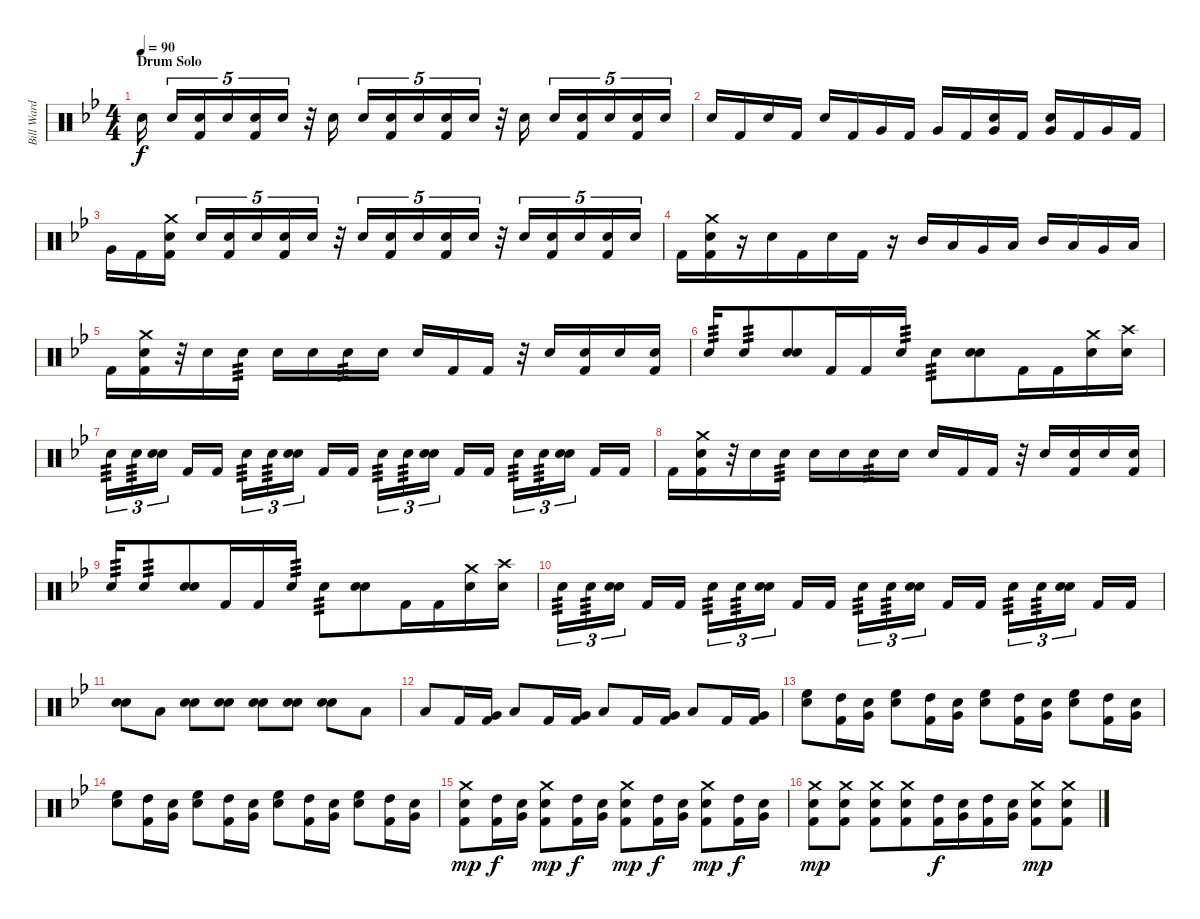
\track ("Bill Ward" "Bill Ward") {instrument percussion}
\staff {score}
\articulation defaults
\ts (4 4)
\section ("" "Drum Solo")
\tempo 90
\clef neutral
\ks bb "Electric Snare (hit)".16{dy f beam splitsecondary} "Electric Snare (hit)".16{tu (5 4)}
("Electric Snare (hit)" "Kick (hit) 2").16{tu (5 4)} "Electric Snare (hit)".16{tu (5 4)} ("Electric Snare (hit)" "Kick (hit) 2").16{tu (5 4) beam merge} "Electric Snare (hit)".16{tu (5 4)} r.32 "Electric Snare (hit)".16{beam splitsecondary} "Electric Snare (hit)".16{tu (5 4)} ("Electric Snare (hit)" "Kick (hit) 2").16{tu (5 4) beam merge} "Electric Snare (hit)".16{tu (5 4)} ("Electric Snare (hit)" "Kick (hit) 2").16{tu (5 4)} "Electric Snare (hit)".16{tu (5 4)} r.32 "Electric Snare (hit)".16 "Electric Snare (hit)".16{tu (5 4)} ("Electric Snare (hit)" "Kick (hit) 2").16{tu (5 4) beam merge} "Electric Snare (hit)".16{tu (5 4)} ("Electric Snare (hit)" "Kick (hit) 2").16{tu (5 4)} "Electric Snare (hit)".16{tu (5 4)} |
"Snare (hit) 2".16 "Kick (hit) 2".16 "Snare (hit) 2".16 "Kick (hit) 2".16 "Snare (hit) 2".16 "Kick (hit) 2".16 "Very Low Tom (hit)".16 "Kick (hit) 2".16 "Very Low Tom (hit)".16 "Kick (hit) 2".16 ("Electric Snare (hit)" "Very Low Tom (hit)").16 "Kick (hit) 2".16 ("Electric Snare (hit)" "Very Low Tom (hit)").16 "Kick (hit) 2".16 "Very Low Tom (hit)".16 "Kick (hit) 2".16 |
"Very Low Tom (hit)".16 "Kick (hit) 2".16 ("Crash medium (hit)" "Snare (hit) 2" "Kick (hit) 2").16{beam splitsecondary} "Snare (hit) 2".16{tu (5 4)} ("Snare (hit) 2" "Kick (hit) 2").16{tu (5 4)} "Snare (hit) 2".16{tu (5 4)} ("Snare (hit) 2" "Kick (hit) 2").16{tu (5 4)} "Snare (hit) 2".16{tu (5 4)} r.32 "Snare (hit) 2".16{tu (5 4)} ("Snare (hit) 2" "Kick (hit) 2").16{tu (5 4)} "Snare (hit) 2".16{tu (5 4)} ("Snare (hit) 2" "Kick (hit) 2").16{tu (5 4)} "Snare (hit) 2".16{tu (5 4)} r.32 "Snare (hit) 2".16{tu (5 4)} ("Snare (hit) 2" "Kick (hit) 2").16{tu (5 4)} "Snare (hit) 2".16{tu (5 4)} ("Snare (hit) 2" "Kick (hit) 2").16{tu (5 4)} "Snare (hit) 2".16{tu (5 4)} |
"Kick (hit) 2".16 ("Crash medium (hit)" "Snare (hit) 2" "Kick (hit) 2").16 r.16 "Electric Snare (hit)".16{beam merge} "Kick (hit) 2".16 "Electric Snare (hit)".16{beam merge} "Kick (hit) 2".16 r.16 "Mid Tom (hit)".16 "Low Tom (hit)".16 "Very Low Tom (hit)".16 "Low Floor Tom (hit)".16 "Mid Tom (hit)".16 "Low Tom (hit)".16 "Very Low Tom (hit)".16 "Low Floor Tom (hit)".16 |
"Kick (hit) 2".16 ("Crash medium (hit)" "Snare (hit) 2" "Kick (hit) 2").16 r.32 "Electric Snare (hit)".16 "Electric Snare (hit)".16{tp 3} "Snare (hit) 2".16 "Electric Snare (hit)".16 "Electric Snare (hit)".16{tp 3} "Snare (hit) 2".16 "Electric Snare (hit)".16 "Kick (hit) 2".16 "Kick (hit) 2".16 r.32 "Electric Snare (hit)".16 ("Electric Snare (hit)" "Kick (hit) 2").16 "Electric Snare (hit)".16 ("Electric Snare (hit)" "Kick (hit) 2").16 |
"Snare (hit) 2".16{tp 3} "Snare (hit) 2".8{tp 3} ("Electric Snare (hit)" "Snare (hit) 2").8{beam merge} "Kick (hit) 2".16 "Kick (hit) 2".16 "Snare (hit) 2".16{tp 3} "Snare (hit) 2".8{tp 3} ("Electric Snare (hit)" "Snare (hit) 2").8{beam merge} "Kick (hit) 2".16 "Kick (hit) 2".16 ("Crash medium (hit)" "Snare (hit) 2").16 ("Crash high (hit)" "Snare (hit) 2").16 |
"Snare (hit) 2".16{tu (3 2) tp 3} "Snare (hit) 2".16{tu (3 2) tp 3} ("Electric Snare (hit)" "Snare (hit) 2").16{tu (3 2) beam splitsecondary} "Kick (hit) 2".16 "Kick (hit) 2".16 "Snare (hit) 2".16{tu (3 2) tp 3} "Snare (hit) 2".16{tu (3 2) tp 3} ("Electric Snare (hit)" "Snare (hit) 2").16{tu (3 2) beam splitsecondary} "Kick (hit) 2".16 "Kick (hit) 2".16 "Snare (hit) 2".16{tu (3 2) tp 3} "Snare (hit) 2".16{tu (3 2) tp 3} ("Electric Snare (hit)" "Snare (hit) 2").16{tu (3 2) beam splitsecondary} "Kick (hit) 2".16 "Kick (hit) 2".16 "Snare (hit) 2".16{tu (3 2) tp 3} "Snare (hit) 2".16{tu (3 2) tp 3} ("Electric Snare (hit)" "Snare (hit) 2").16{tu (3 2) beam splitsecondary} "Kick (hit) 2".16 "Kick (hit) 2".16 |
"Kick (hit) 2".16 ("Crash medium (hit)" "Snare (hit) 2" "Kick (hit) 2").16 r.32 "Electric Snare (hit)".16 "Electric Snare (hit)".16{tp 3} "Snare (hit) 2".16 "Electric Snare (hit)".16 "Electric Snare (hit)".16{tp 3} "Snare (hit) 2".16 "Electric Snare (hit)".16 "Kick (hit) 2".16 "Kick (hit) 2".16 r.32 "Electric Snare (hit)".16 ("Electric Snare (hit)" "Kick (hit) 2").16 "Electric Snare (hit)".16 ("Electric Snare (hit)" "Kick (hit) 2").16 |
"Snare (hit) 2".16{tp 3} "Snare (hit) 2".8{tp 3} ("Electric Snare (hit)" "Snare (hit) 2").8{beam merge} "Kick (hit) 2".16 "Kick (hit) 2".16 "Snare (hit) 2".16{tp 3} "Snare (hit) 2".8{tp 3} ("Electric Snare (hit)" "Snare (hit) 2").8{beam merge} "Kick (hit) 2".16 "Kick (hit) 2".16 ("Crash medium (hit)" "Snare (hit) 2").16 ("Crash high (hit)" "Snare (hit) 2").16 |
"Snare (hit) 2".16{tu (3 2) tp 3} "Snare (hit) 2".16{tu (3 2) tp 3} ("Electric Snare (hit)" "Snare (hit) 2").16{tu (3 2) beam splitsecondary} "Kick (hit) 2".16 "Kick (hit) 2".16 "Snare (hit) 2".16{tu (3 2) tp 3} "Snare (hit) 2".16{tu (3 2) tp 3} ("Electric Snare (hit)" "Snare (hit) 2").16{tu (3 2) beam splitsecondary} "Kick (hit) 2".16 "Kick (hit) 2".16 "Snare (hit) 2".16{tu (3 2) tp 3} "Snare (hit) 2".16{tu (3 2) tp 3} ("Electric Snare (hit)" "Snare (hit) 2").16{tu (3 2) beam splitsecondary} "Kick (hit) 2".16 "Kick (hit) 2".16 "Snare (hit) 2".16{tu (3 2) tp 3} "Snare (hit) 2".16{tu (3 2) tp 3} ("Electric Snare (hit)" "Snare (hit) 2").16{tu (3 2) beam splitsecondary} "Kick (hit) 2".16 "Kick (hit) 2".16 |
("Electric Snare (hit)" "Snare (hit) 2").8 "Low Tom (hit)".8 ("Electric Snare (hit)" "Snare (hit) 2").8 ("Electric Snare (hit)" "Snare (hit) 2").8 ("Electric Snare (hit)" "Snare (hit) 2").8 ("Electric Snare (hit)" "Snare (hit) 2").8 ("Electric Snare (hit)" "Snare (hit) 2").8 "Low Tom (hit)".8 |
"Low Tom (hit)".8{beam merge} "Kick (hit) 2".16 ("Very Low Tom (hit)" "Kick (hit) 2").16 "Low Tom (hit)".8{beam merge} "Kick (hit) 2".16 ("Very Low Tom (hit)" "Kick (hit) 2").16 "Low Tom (hit)".8{beam merge} "Kick (hit) 2".16 ("Very Low Tom (hit)" "Kick (hit) 2").16 "Low Tom (hit)".8{beam merge} "Kick (hit) 2".16 ("Very Low Tom (hit)" "Kick (hit) 2").16 |
("High Floor Tom (hit)" "Electric Snare (hit)").8{beam merge} ("High Tom (hit)" "Kick (hit) 2").16 ("Very Low Tom (hit)" "Electric Snare (hit)").16 ("High Floor Tom (hit)" "Electric Snare (hit)").8{beam merge} ("High Tom (hit)" "Kick (hit) 2").16 ("Very Low Tom (hit)" "Electric Snare (hit)").16 ("High Floor Tom (hit)" "Electric Snare (hit)").8{beam merge} ("High Tom (hit)" "Kick (hit) 2").16 ("Very Low Tom (hit)" "Electric Snare (hit)").16 ("High Floor Tom (hit)" "Electric Snare (hit)").8{beam merge} ("High Tom (hit)" "Kick (hit) 2").16 ("Very Low Tom (hit)" "Electric Snare (hit)").16 |
("High Floor Tom (hit)" "Electric Snare (hit)").8{beam merge} ("High Tom (hit)" "Kick (hit) 2").16 ("Very Low Tom (hit)" "Electric Snare (hit)").16 ("High Floor Tom (hit)" "Electric Snare (hit)").8{beam merge} ("High Tom (hit)" "Kick (hit) 2").16 ("Very Low Tom (hit)" "Electric Snare (hit)").16 ("High Floor Tom (hit)" "Electric Snare (hit)").8{beam merge} ("High Tom (hit)" "Kick (hit) 2").16 ("Very Low Tom (hit)" "Electric Snare (hit)").16 ("High Floor Tom (hit)" "Electric Snare (hit)").8{beam merge} ("High Tom (hit)" "Kick (hit) 2").16 ("Very Low Tom (hit)" "Electric Snare (hit)").16 |
("Crash medium (hit)" "Electric Snare (hit)" "Kick (hit) 2").8{dy mp beam merge} ("High Tom (hit)" "Kick (hit) 2").16{dy f} ("Very Low Tom (hit)" "Electric Snare (hit)").16 ("Crash medium (hit)" "Electric Snare (hit)" "Kick (hit) 2").8{dy mp beam merge} ("High Tom (hit)" "Kick (hit) 2").16{dy f} ("Very Low Tom (hit)" "Electric Snare (hit)").16 ("Crash medium (hit)" "Electric Snare (hit)" "Kick (hit) 2").8{dy mp beam merge} ("High Tom (hit)" "Kick (hit) 2").16{dy f} ("Very Low Tom (hit)" "Electric Snare (hit)").16 ("Crash medium (hit)" "Electric Snare (hit)" "Kick (hit) 2").8{dy mp beam merge} ("High Tom (hit)" "Kick (hit) 2").16{dy f} ("Very Low Tom (hit)" "Electric Snare (hit)").16 |
("Crash medium (hit)" "Electric Snare (hit)" "Kick (hit) 2").8{dy mp} ("Crash medium (hit)" "Electric Snare (hit)" "Kick (hit) 2").8 ("Crash medium (hit)" "Electric Snare (hit)" "Kick (hit) 2").8 ("Crash medium (hit)" "Electric Snare (hit)" "Kick (hit) 2").8{beam merge} ("High Tom (hit)" "Kick (hit) 2").16{dy f} ("Very Low Tom (hit)" "Electric Snare (hit)").16{beam merge} ("High Tom (hit)" "Kick (hit) 2").16 ("Very Low Tom (hit)" "Electric Snare (hit)").16 ("Crash medium (hit)" "Electric Snare (hit)" "Kick (hit) 2").8{dy mp} ("Crash medium (hit)" "Electric Snare (hit)" "Kick (hit) 2").8
